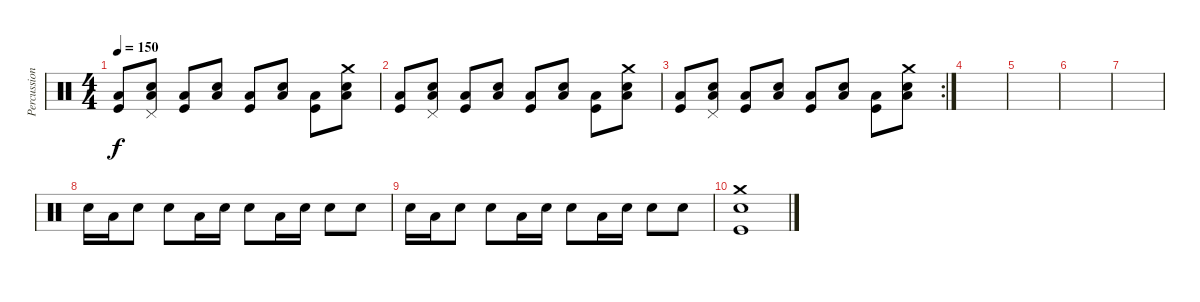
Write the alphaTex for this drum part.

\track ("Percussions" "Percussion") {instrument percussion}
\staff {score}
\articulation defaults
\ts (4 4)
\tempo 150
\clef neutral
\ks c
("Low Floor Tom (hit)" "Kick (hit)").8{dy f} ("Low Floor Tom (hit)" "Snare (hit) 2" "Pedal Hi-Hat (hit)").8 ("Low Floor Tom (hit)" "Kick (hit)").8 ("Low Floor Tom (hit)" "Snare (hit) 2").8 ("Low Floor Tom (hit)" "Kick (hit)").8 ("Low Floor Tom (hit)" "Snare (hit) 2").8 ("Low Floor Tom (hit)" "Kick (hit)").8 ("Low Floor Tom (hit)" "Snare (hit) 2" "Crash medium (hit)").8 |
("Low Floor Tom (hit)" "Kick (hit)").8 ("Low Floor Tom (hit)" "Snare (hit) 2" "Pedal Hi-Hat (hit)").8 ("Low Floor Tom (hit)" "Kick (hit)").8 ("Low Floor Tom (hit)" "Snare (hit) 2").8 ("Low Floor Tom (hit)" "Kick (hit)").8 ("Low Floor Tom (hit)" "Snare (hit) 2").8 ("Low Floor Tom (hit)" "Kick (hit)").8 ("Low Floor Tom (hit)" "Snare (hit) 2" "Crash medium (hit)").8 |
\rc 2
("Low Floor Tom (hit)" "Kick (hit)").8 ("Low Floor Tom (hit)" "Snare (hit) 2" "Pedal Hi-Hat (hit)").8 ("Low Floor Tom (hit)" "Kick (hit)").8 ("Low Floor Tom (hit)" "Snare (hit) 2").8 ("Low Floor Tom (hit)" "Kick (hit)").8 ("Low Floor Tom (hit)" "Snare (hit) 2").8 ("Low Floor Tom (hit)" "Kick (hit)").8 ("Low Floor Tom (hit)" "Snare (hit) 2" "Crash medium (hit)").8 |
|
|
|
|
"Electric Snare (hit)".16 "Low Floor Tom (hit)".16 "Electric Snare (hit)".8 "Electric Snare (hit)".8 "Low Floor Tom (hit)".16 "Electric Snare (hit)".16 "Electric Snare (hit)".8 "Low Floor Tom (hit)".16 "Electric Snare (hit)".16 "Electric Snare (hit)".8 "Electric Snare (hit)".8 |
"Electric Snare (hit)".16 "Low Floor Tom (hit)".16 "Electric Snare (hit)".8 "Electric Snare (hit)".8 "Low Floor Tom (hit)".16 "Electric Snare (hit)".16 "Electric Snare (hit)".8 "Low Floor Tom (hit)".16 "Electric Snare (hit)".16 "Electric Snare (hit)".8 "Electric Snare (hit)".8 |
("Crash medium (hit)" "Kick (hit)" "Snare (hit) 2").1
